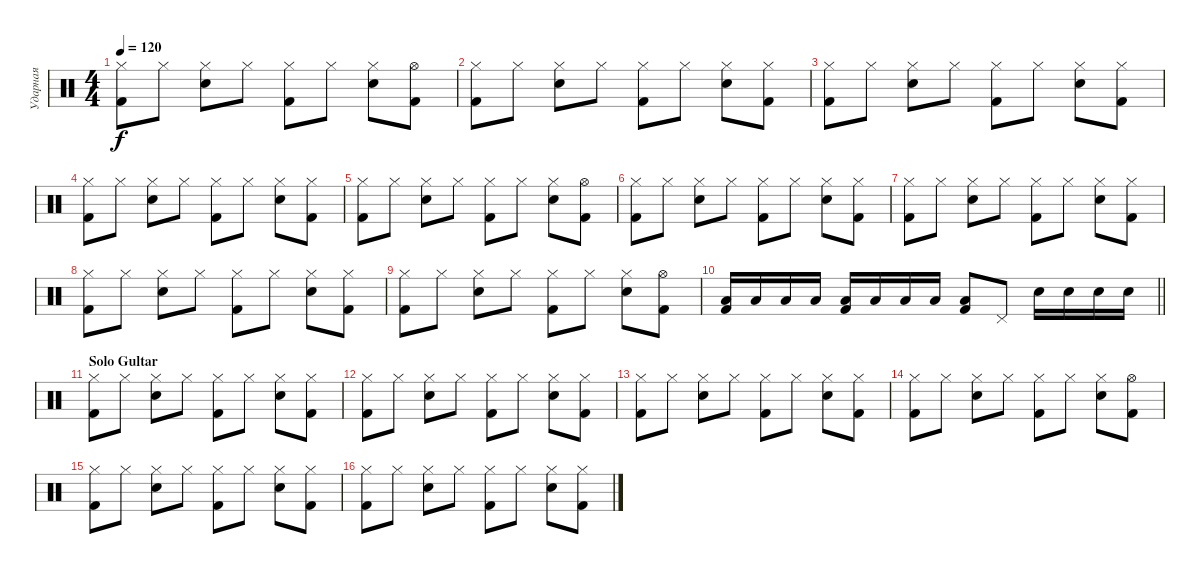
\track ("Ударная" "Ударная") {instrument percussion}
\staff {score}
\articulation defaults
\ts (4 4)
\tempo 120
\clef neutral
\ks c
("Hi-Hat (closed)" "Kick (hit) 2").8{dy f} "Hi-Hat (closed)".8 ("Hi-Hat (closed)" "Electric Snare (hit)").8 "Hi-Hat (closed)".8 ("Hi-Hat (closed)" "Kick (hit) 2").8 "Hi-Hat (closed)".8 ("Hi-Hat (closed)" "Electric Snare (hit)").8 ("Hi-Hat (open)" "Kick (hit) 2").8 |
("Hi-Hat (closed)" "Kick (hit) 2").8 "Hi-Hat (closed)".8 ("Hi-Hat (closed)" "Electric Snare (hit)").8 "Hi-Hat (closed)".8 ("Hi-Hat (closed)" "Kick (hit) 2").8 "Hi-Hat (closed)".8 ("Hi-Hat (closed)" "Electric Snare (hit)").8 ("Hi-Hat (closed)" "Kick (hit) 2").8 |
("Hi-Hat (closed)" "Kick (hit) 2").8 "Hi-Hat (closed)".8 ("Hi-Hat (closed)" "Electric Snare (hit)").8 "Hi-Hat (closed)".8 ("Hi-Hat (closed)" "Kick (hit) 2").8 "Hi-Hat (closed)".8 ("Hi-Hat (closed)" "Electric Snare (hit)").8 ("Hi-Hat (closed)" "Kick (hit) 2").8 |
("Hi-Hat (closed)" "Kick (hit) 2").8 "Hi-Hat (closed)".8 ("Hi-Hat (closed)" "Electric Snare (hit)").8 "Hi-Hat (closed)".8 ("Hi-Hat (closed)" "Kick (hit) 2").8 "Hi-Hat (closed)".8 ("Hi-Hat (closed)" "Electric Snare (hit)").8 ("Hi-Hat (closed)" "Kick (hit) 2").8 |
("Hi-Hat (closed)" "Kick (hit) 2").8 "Hi-Hat (closed)".8 ("Hi-Hat (closed)" "Electric Snare (hit)").8 "Hi-Hat (closed)".8 ("Hi-Hat (closed)" "Kick (hit) 2").8 "Hi-Hat (closed)".8 ("Hi-Hat (closed)" "Electric Snare (hit)").8 ("Hi-Hat (open)" "Kick (hit) 2").8 |
("Hi-Hat (closed)" "Kick (hit) 2").8 "Hi-Hat (closed)".8 ("Hi-Hat (closed)" "Electric Snare (hit)").8 "Hi-Hat (closed)".8 ("Hi-Hat (closed)" "Kick (hit) 2").8 "Hi-Hat (closed)".8 ("Hi-Hat (closed)" "Electric Snare (hit)").8 ("Hi-Hat (closed)" "Kick (hit) 2").8 |
("Hi-Hat (closed)" "Kick (hit) 2").8 "Hi-Hat (closed)".8 ("Hi-Hat (closed)" "Electric Snare (hit)").8 "Hi-Hat (closed)".8 ("Hi-Hat (closed)" "Kick (hit) 2").8 "Hi-Hat (closed)".8 ("Hi-Hat (closed)" "Electric Snare (hit)").8 ("Hi-Hat (closed)" "Kick (hit) 2").8 |
("Hi-Hat (closed)" "Kick (hit) 2").8 "Hi-Hat (closed)".8 ("Hi-Hat (closed)" "Electric Snare (hit)").8 "Hi-Hat (closed)".8 ("Hi-Hat (closed)" "Kick (hit) 2").8 "Hi-Hat (closed)".8 ("Hi-Hat (closed)" "Electric Snare (hit)").8 ("Hi-Hat (closed)" "Kick (hit) 2").8 |
("Hi-Hat (closed)" "Kick (hit) 2").8 "Hi-Hat (closed)".8 ("Hi-Hat (closed)" "Electric Snare (hit)").8 "Hi-Hat (closed)".8 ("Hi-Hat (closed)" "Kick (hit) 2").8 "Hi-Hat (closed)".8 ("Hi-Hat (closed)" "Electric Snare (hit)").8 ("Hi-Hat (open)" "Kick (hit) 2").8 |
\barLineRight lightlight
("Low Tom (hit)" "Kick (hit) 2").16 "Low Tom (hit)".16 "Low Tom (hit)".16 "Low Tom (hit)".16 ("Low Tom (hit)" "Kick (hit) 2").16 "Low Tom (hit)".16 "Low Tom (hit)".16 "Low Tom (hit)".16 ("Low Tom (hit)" "Kick (hit) 2").8 "Pedal Hi-Hat (hit)".8 "Snare (hit) 2".16 "Snare (hit) 2".16 "Snare (hit) 2".16 "Snare (hit) 2".16 |
\section ("" "Solo Gultar")
("Hi-Hat (closed)" "Kick (hit) 2").8 "Hi-Hat (closed)".8 ("Hi-Hat (closed)" "Electric Snare (hit)").8 "Hi-Hat (closed)".8 ("Hi-Hat (closed)" "Kick (hit) 2").8 "Hi-Hat (closed)".8 ("Hi-Hat (closed)" "Electric Snare (hit)").8 ("Hi-Hat (closed)" "Kick (hit) 2").8 |
("Hi-Hat (closed)" "Kick (hit) 2").8 "Hi-Hat (closed)".8 ("Hi-Hat (closed)" "Electric Snare (hit)").8 "Hi-Hat (closed)".8 ("Hi-Hat (closed)" "Kick (hit) 2").8 "Hi-Hat (closed)".8 ("Hi-Hat (closed)" "Electric Snare (hit)").8 ("Hi-Hat (closed)" "Kick (hit) 2").8 |
("Hi-Hat (closed)" "Kick (hit) 2").8 "Hi-Hat (closed)".8 ("Hi-Hat (closed)" "Electric Snare (hit)").8 "Hi-Hat (closed)".8 ("Hi-Hat (closed)" "Kick (hit) 2").8 "Hi-Hat (closed)".8 ("Hi-Hat (closed)" "Electric Snare (hit)").8 ("Hi-Hat (closed)" "Kick (hit) 2").8 |
("Hi-Hat (closed)" "Kick (hit) 2").8 "Hi-Hat (closed)".8 ("Hi-Hat (closed)" "Electric Snare (hit)").8 "Hi-Hat (closed)".8 ("Hi-Hat (closed)" "Kick (hit) 2").8 "Hi-Hat (closed)".8 ("Hi-Hat (closed)" "Electric Snare (hit)").8 ("Hi-Hat (open)" "Kick (hit) 2").8 |
("Hi-Hat (closed)" "Kick (hit) 2").8 "Hi-Hat (closed)".8 ("Hi-Hat (closed)" "Electric Snare (hit)").8 "Hi-Hat (closed)".8 ("Hi-Hat (closed)" "Kick (hit) 2").8 "Hi-Hat (closed)".8 ("Hi-Hat (closed)" "Electric Snare (hit)").8 ("Hi-Hat (closed)" "Kick (hit) 2").8 |
("Hi-Hat (closed)" "Kick (hit) 2").8 "Hi-Hat (closed)".8 ("Hi-Hat (closed)" "Electric Snare (hit)").8 "Hi-Hat (closed)".8 ("Hi-Hat (closed)" "Kick (hit) 2").8 "Hi-Hat (closed)".8 ("Hi-Hat (closed)" "Electric Snare (hit)").8 ("Hi-Hat (closed)" "Kick (hit) 2").8
